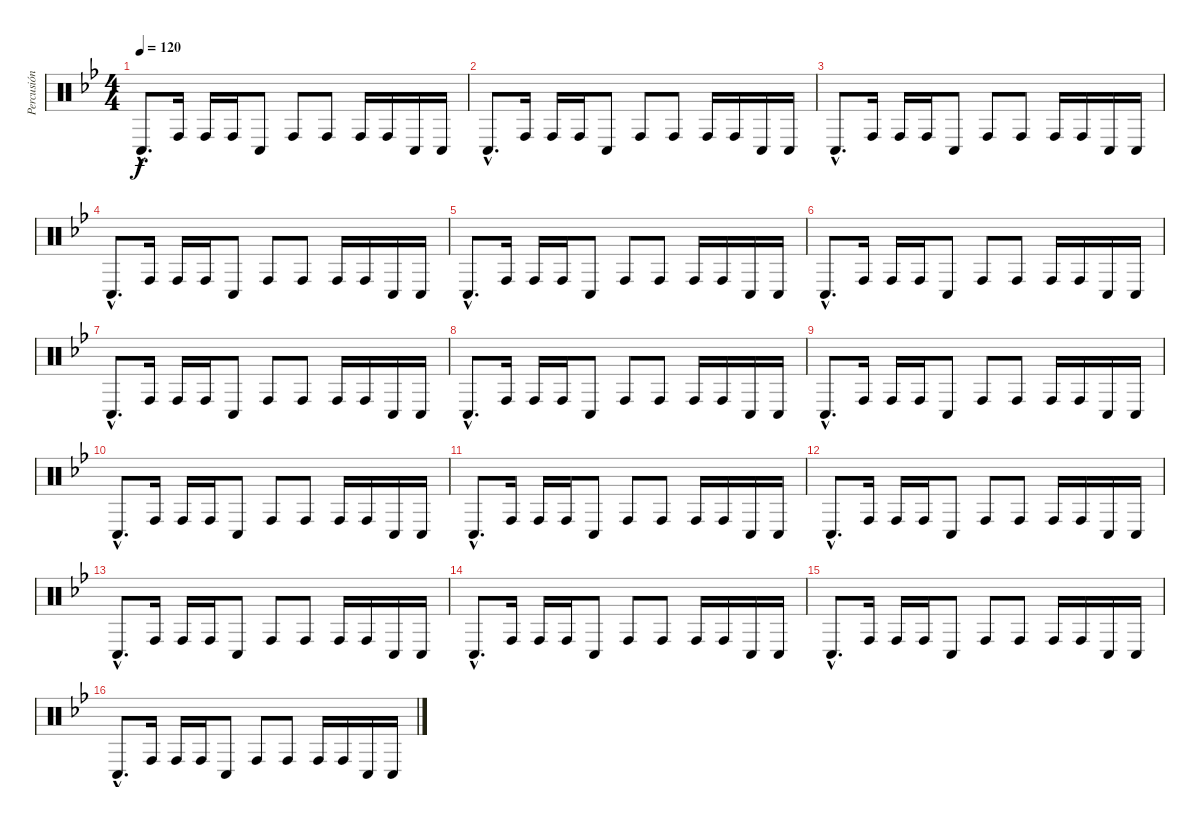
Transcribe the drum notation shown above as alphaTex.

\track ("Percusión" "Percusión") {instrument percussion}
\staff {score}
\articulation defaults
\ts (4 4)
\tempo 120
\clef neutral
\ks bb "Conga low (hit)"{hac}.8{d dy f} "Conga high (hit)".16 "Conga high (hit)".16 "Conga high (hit)".16 "Conga low (hit)".8 "Conga high (hit)".8 "Conga high (hit)".8 "Conga high (hit)".16 "Conga high (hit)".16 "Conga low (hit)".16 "Conga low (hit)".16
|
"Conga low (hit)"{hac}.8{d} "Conga high (hit)".16 "Conga high (hit)".16 "Conga high (hit)".16 "Conga low (hit)".8 "Conga high (hit)".8 "Conga high (hit)".8 "Conga high (hit)".16 "Conga high (hit)".16 "Conga low (hit)".16 "Conga low (hit)".16 |
"Conga low (hit)"{hac}.8{d} "Conga high (hit)".16 "Conga high (hit)".16 "Conga high (hit)".16 "Conga low (hit)".8 "Conga high (hit)".8 "Conga high (hit)".8 "Conga high (hit)".16 "Conga high (hit)".16 "Conga low (hit)".16 "Conga low (hit)".16 |
"Conga low (hit)"{hac}.8{d} "Conga high (hit)".16 "Conga high (hit)".16 "Conga high (hit)".16 "Conga low (hit)".8 "Conga high (hit)".8 "Conga high (hit)".8 "Conga high (hit)".16 "Conga high (hit)".16 "Conga low (hit)".16 "Conga low (hit)".16 |
"Conga low (hit)"{hac}.8{d} "Conga high (hit)".16 "Conga high (hit)".16 "Conga high (hit)".16 "Conga low (hit)".8 "Conga high (hit)".8 "Conga high (hit)".8 "Conga high (hit)".16 "Conga high (hit)".16 "Conga low (hit)".16 "Conga low (hit)".16 |
"Conga low (hit)"{hac}.8{d} "Conga high (hit)".16 "Conga high (hit)".16 "Conga high (hit)".16 "Conga low (hit)".8 "Conga high (hit)".8 "Conga high (hit)".8 "Conga high (hit)".16 "Conga high (hit)".16 "Conga low (hit)".16 "Conga low (hit)".16 |
"Conga low (hit)"{hac}.8{d} "Conga high (hit)".16 "Conga high (hit)".16 "Conga high (hit)".16 "Conga low (hit)".8 "Conga high (hit)".8 "Conga high (hit)".8 "Conga high (hit)".16 "Conga high (hit)".16 "Conga low (hit)".16 "Conga low (hit)".16 |
"Conga low (hit)"{hac}.8{d} "Conga high (hit)".16 "Conga high (hit)".16 "Conga high (hit)".16 "Conga low (hit)".8 "Conga high (hit)".8 "Conga high (hit)".8 "Conga high (hit)".16 "Conga high (hit)".16 "Conga low (hit)".16 "Conga low (hit)".16 |
"Conga low (hit)"{hac}.8{d} "Conga high (hit)".16 "Conga high (hit)".16 "Conga high (hit)".16 "Conga low (hit)".8 "Conga high (hit)".8 "Conga high (hit)".8 "Conga high (hit)".16 "Conga high (hit)".16 "Conga low (hit)".16 "Conga low (hit)".16 |
"Conga low (hit)"{hac}.8{d} "Conga high (hit)".16 "Conga high (hit)".16 "Conga high (hit)".16 "Conga low (hit)".8 "Conga high (hit)".8 "Conga high (hit)".8 "Conga high (hit)".16 "Conga high (hit)".16 "Conga low (hit)".16 "Conga low (hit)".16 |
"Conga low (hit)"{hac}.8{d} "Conga high (hit)".16 "Conga high (hit)".16 "Conga high (hit)".16 "Conga low (hit)".8 "Conga high (hit)".8 "Conga high (hit)".8 "Conga high (hit)".16 "Conga high (hit)".16 "Conga low (hit)".16 "Conga low (hit)".16 |
"Conga low (hit)"{hac}.8{d} "Conga high (hit)".16 "Conga high (hit)".16 "Conga high (hit)".16 "Conga low (hit)".8 "Conga high (hit)".8 "Conga high (hit)".8 "Conga high (hit)".16 "Conga high (hit)".16 "Conga low (hit)".16 "Conga low (hit)".16 |
"Conga low (hit)"{hac}.8{d} "Conga high (hit)".16 "Conga high (hit)".16 "Conga high (hit)".16 "Conga low (hit)".8 "Conga high (hit)".8 "Conga high (hit)".8 "Conga high (hit)".16 "Conga high (hit)".16 "Conga low (hit)".16 "Conga low (hit)".16 |
"Conga low (hit)"{hac}.8{d} "Conga high (hit)".16 "Conga high (hit)".16 "Conga high (hit)".16 "Conga low (hit)".8 "Conga high (hit)".8 "Conga high (hit)".8 "Conga high (hit)".16 "Conga high (hit)".16 "Conga low (hit)".16 "Conga low (hit)".16 |
"Conga low (hit)"{hac}.8{d} "Conga high (hit)".16 "Conga high (hit)".16 "Conga high (hit)".16 "Conga low (hit)".8 "Conga high (hit)".8 "Conga high (hit)".8 "Conga high (hit)".16 "Conga high (hit)".16 "Conga low (hit)".16 "Conga low (hit)".16 |
"Conga low (hit)"{hac}.8{d} "Conga high (hit)".16 "Conga high (hit)".16 "Conga high (hit)".16 "Conga low (hit)".8 "Conga high (hit)".8 "Conga high (hit)".8 "Conga high (hit)".16 "Conga high (hit)".16 "Conga low (hit)".16 "Conga low (hit)".16
